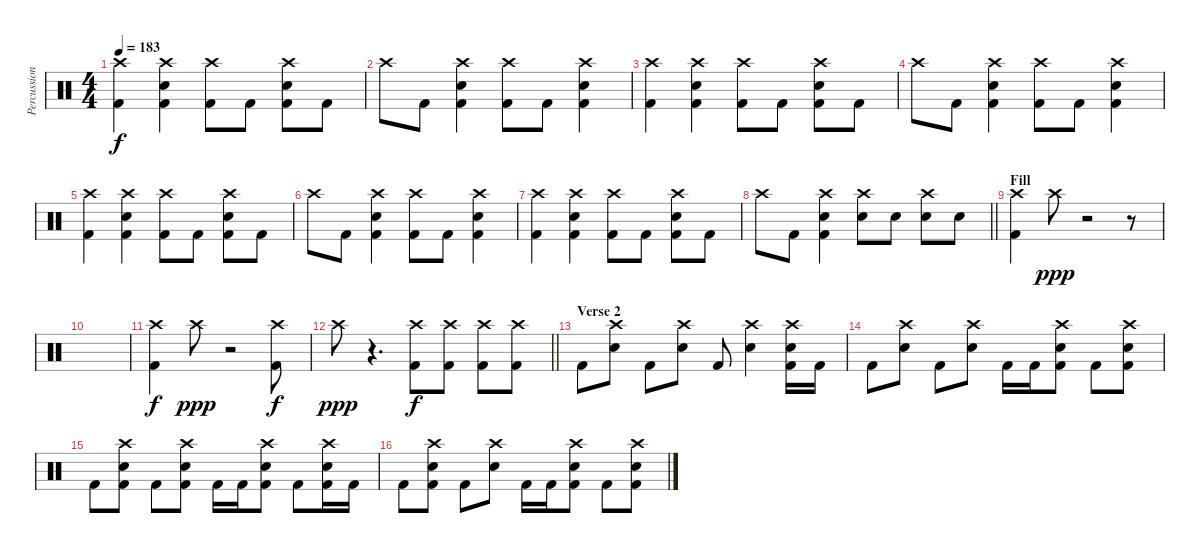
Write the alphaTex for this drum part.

\track ("Percussion" "Percussion") {instrument percussion}
\staff {score}
\articulation defaults
\ts (4 4)
\tempo 183
\clef neutral
\ks aminor
("Crash high (hit)" "Kick (hit) 2").4{dy f} ("Crash high (hit)" "Electric Snare (hit)" "Kick (hit) 2").4 ("Crash high (hit)" "Kick (hit) 2").8 "Kick (hit) 2".8 ("Crash high (hit)" "Electric Snare (hit)" "Kick (hit) 2").8 "Kick (hit) 2".8 |
"Crash high (hit)".8 "Kick (hit) 2".8 ("Crash high (hit)" "Electric Snare (hit)" "Kick (hit) 2").4 ("Crash high (hit)" "Kick (hit) 2").8 "Kick (hit) 2".8 ("Crash high (hit)" "Electric Snare (hit)" "Kick (hit) 2").4 |
("Crash high (hit)" "Kick (hit) 2").4 ("Crash high (hit)" "Electric Snare (hit)" "Kick (hit) 2").4 ("Crash high (hit)" "Kick (hit) 2").8 "Kick (hit) 2".8 ("Crash high (hit)" "Electric Snare (hit)" "Kick (hit) 2").8 "Kick (hit) 2".8 |
"Crash high (hit)".8 "Kick (hit) 2".8 ("Crash high (hit)" "Electric Snare (hit)" "Kick (hit) 2").4 ("Crash high (hit)" "Kick (hit) 2").8 "Kick (hit) 2".8 ("Crash high (hit)" "Electric Snare (hit)" "Kick (hit) 2").4 |
("Crash high (hit)" "Kick (hit) 2").4 ("Crash high (hit)" "Electric Snare (hit)" "Kick (hit) 2").4 ("Crash high (hit)" "Kick (hit) 2").8 "Kick (hit) 2".8 ("Crash high (hit)" "Electric Snare (hit)" "Kick (hit) 2").8 "Kick (hit) 2".8 |
"Crash high (hit)".8 "Kick (hit) 2".8 ("Crash high (hit)" "Electric Snare (hit)" "Kick (hit) 2").4 ("Crash high (hit)" "Kick (hit) 2").8 "Kick (hit) 2".8 ("Crash high (hit)" "Electric Snare (hit)" "Kick (hit) 2").4 |
("Crash high (hit)" "Kick (hit) 2").4 ("Crash high (hit)" "Electric Snare (hit)" "Kick (hit) 2").4 ("Crash high (hit)" "Kick (hit) 2").8 "Kick (hit) 2".8 ("Crash high (hit)" "Electric Snare (hit)" "Kick (hit) 2").8 "Kick (hit) 2".8 |
\barLineRight lightlight "Crash high (hit)".8 "Kick (hit) 2".8
("Crash high (hit)" "Electric Snare (hit)" "Kick (hit) 2").4 ("Crash high (hit)" "Electric Snare (hit)").8 "Electric Snare (hit)".8 ("Crash high (hit)" "Electric Snare (hit)").8 "Electric Snare (hit)".8 |
\section ("" "Fill")
("Crash high (hit)" "Kick (hit) 2").4 "Crash high (hit)".8{dy ppp} r.2 r.8 |
|
("Crash high (hit)" "Kick (hit) 2").4{dy f} "Crash high (hit)".8{dy ppp} r.2 ("Crash high (hit)" "Kick (hit) 2").8{dy f} |
\barLineRight lightlight "Crash high (hit)".8{dy ppp}
r.4{d} ("Crash high (hit)" "Kick (hit) 2").8{dy f} ("Crash high (hit)" "Kick (hit) 2").8 ("Crash high (hit)" "Kick (hit) 2").8 ("Crash high (hit)" "Kick (hit) 2").8 |
\section ("" "Verse 2")
"Kick (hit) 2".8 ("Crash high (hit)" "Electric Snare (hit)").8 "Kick (hit) 2".8 ("Crash high (hit)" "Electric Snare (hit)").8 "Kick (hit) 2".8 ("Crash high (hit)" "Electric Snare (hit)").4 ("Crash high (hit)" "Electric Snare (hit)" "Kick (hit) 2").16 "Kick (hit) 2".16 |
"Kick (hit) 2".8 ("Crash high (hit)" "Electric Snare (hit)").8 "Kick (hit) 2".8 ("Crash high (hit)" "Electric Snare (hit)").8 "Kick (hit) 2".16 "Kick (hit) 2".16 ("Crash high (hit)" "Electric Snare (hit)" "Kick (hit) 2").8 "Kick (hit) 2".8 ("Crash high (hit)" "Electric Snare (hit)" "Kick (hit) 2").8 |
"Kick (hit) 2".8 ("Crash high (hit)" "Electric Snare (hit)" "Kick (hit) 2").8 "Kick (hit) 2".8 ("Crash high (hit)" "Electric Snare (hit)" "Kick (hit) 2").8 "Kick (hit) 2".16 "Kick (hit) 2".16 ("Crash high (hit)" "Electric Snare (hit)" "Kick (hit) 2").8 "Kick (hit) 2".8 ("Crash high (hit)" "Electric Snare (hit)" "Kick (hit) 2").16 "Kick (hit) 2".16 |
"Kick (hit) 2".8 ("Crash high (hit)" "Electric Snare (hit)" "Kick (hit) 2").8 "Kick (hit) 2".8 ("Crash high (hit)" "Electric Snare (hit)").8 "Kick (hit) 2".16 "Kick (hit) 2".16 ("Crash high (hit)" "Electric Snare (hit)" "Kick (hit) 2").8 "Kick (hit) 2".8 ("Crash high (hit)" "Electric Snare (hit)" "Kick (hit) 2").8
